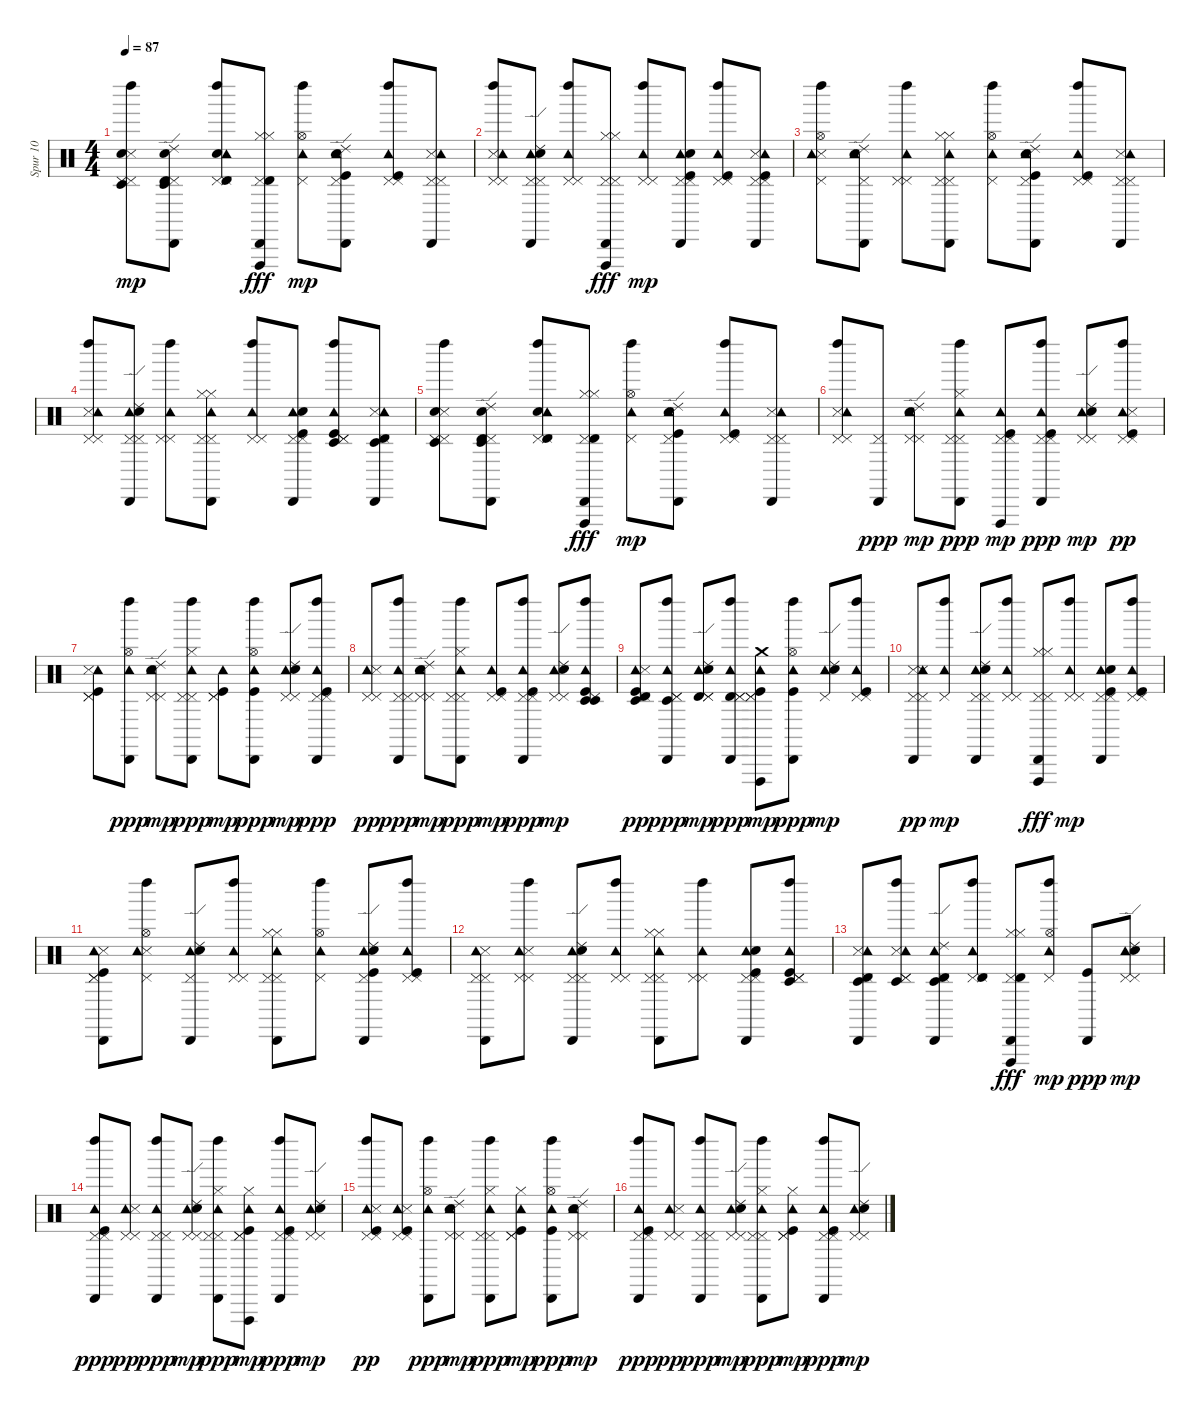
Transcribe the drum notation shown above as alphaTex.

\track ("Spur 10" "Spur 10") {instrument percussion}
\staff {score}
\articulation defaults
\ts (4 4)
\tempo 87
\clef neutral
\ks c
("Timbale low (hit)" "Snare (side stick) 3" "Pedal Hi-Hat (hit)" "Electric Snare (hit)" "Pedal Hi-Hat (hit)" "Left Maraca (hit)").8{dy mp} ("Electric Snare (hit)" "Timbale low (hit)" "Pedal Hi-Hat (hit)" "Cabasa (hit)" "Timbale high (hit)" "Ride (edge) 2").8 ("Pedal Hi-Hat (hit)" "Electric Snare (hit)" "Timbale high (hit)" "Pedal Hi-Hat (hit)" "Left Maraca (hit)" "Tambourine (hit)").8 ("Pedal Hi-Hat (hit)" "Cabasa (hit)" "Timbale high (hit)" "Hi-Hat (closed)" "Hi-Hat (closed)" "Vibraslap (hit)").8{dy fff} ("Pedal Hi-Hat (hit)" "Left Maraca (hit)" "Hi-Hat (open)" "Tambourine (hit)").8{dy mp} ("Kick (hit)" "Cabasa (hit)" "Ride (edge) 2" "Pedal Hi-Hat (hit)" "Tambourine (hit)" "Electric Snare (hit)").8 ("Pedal Hi-Hat (hit)" "Pedal Hi-Hat (hit)" "Kick (hit)" "Tambourine (hit)" "Left Maraca (hit)").8 ("Cabasa (hit)" "Pedal Hi-Hat (hit)" "Snare (side stick) 3" "Pedal Hi-Hat (hit)" "Tambourine (hit)").8 |
("Snare (side stick) 3" "Pedal Hi-Hat (hit)" "Left Maraca (hit)" "Pedal Hi-Hat (hit)" "Tambourine (hit)").8 ("Cabasa (hit)" "Pedal Hi-Hat (hit)" "Ride (edge) 2" "Pedal Hi-Hat (hit)" "Tambourine (hit)" "Electric Snare (hit)").8 ("Pedal Hi-Hat (hit)" "Left Maraca (hit)" "Pedal Hi-Hat (hit)" "Tambourine (hit)").8 ("Cabasa (hit)" "Pedal Hi-Hat (hit)" "Hi-Hat (closed)" "Hi-Hat (closed)" "Vibraslap (hit)" "Pedal Hi-Hat (hit)").8{dy fff} ("Pedal Hi-Hat (hit)" "Left Maraca (hit)" "Pedal Hi-Hat (hit)" "Tambourine (hit)").8{dy mp} ("Kick (hit)" "Cabasa (hit)" "Pedal Hi-Hat (hit)" "Pedal Hi-Hat (hit)" "Tambourine (hit)" "Electric Snare (hit)").8 ("Pedal Hi-Hat (hit)" "Kick (hit)" "Tambourine (hit)" "Left Maraca (hit)" "Pedal Hi-Hat (hit)").8 ("Pedal Hi-Hat (hit)" "Snare (side stick) 3" "Cabasa (hit)" "Tambourine (hit)" "Pedal Hi-Hat (hit)" "Kick (hit)").8 |
("Snare (side stick) 3" "Pedal Hi-Hat (hit)" "Left Maraca (hit)" "Tambourine (hit)" "Hi-Hat (open)").8 ("Cabasa (hit)" "Ride (edge) 2" "Tambourine (hit)" "Pedal Hi-Hat (hit)" "Electric Snare (hit)").8 ("Pedal Hi-Hat (hit)" "Pedal Hi-Hat (hit)" "Left Maraca (hit)" "Tambourine (hit)").8 ("Pedal Hi-Hat (hit)" "Cabasa (hit)" "Hi-Hat (closed)" "Hi-Hat (closed)" "Pedal Hi-Hat (hit)" "Tambourine (hit)").8 ("Pedal Hi-Hat (hit)" "Left Maraca (hit)" "Hi-Hat (open)" "Tambourine (hit)").8 ("Kick (hit)" "Cabasa (hit)" "Ride (edge) 2" "Pedal Hi-Hat (hit)" "Tambourine (hit)" "Electric Snare (hit)").8 ("Pedal Hi-Hat (hit)" "Pedal Hi-Hat (hit)" "Kick (hit)" "Tambourine (hit)" "Left Maraca (hit)").8 ("Cabasa (hit)" "Pedal Hi-Hat (hit)" "Snare (side stick) 3" "Pedal Hi-Hat (hit)" "Tambourine (hit)").8 |
("Snare (side stick) 3" "Pedal Hi-Hat (hit)" "Left Maraca (hit)" "Pedal Hi-Hat (hit)" "Tambourine (hit)").8 ("Cabasa (hit)" "Pedal Hi-Hat (hit)" "Ride (edge) 2" "Pedal Hi-Hat (hit)" "Tambourine (hit)" "Electric Snare (hit)").8 ("Pedal Hi-Hat (hit)" "Left Maraca (hit)" "Pedal Hi-Hat (hit)" "Tambourine (hit)").8 ("Cabasa (hit)" "Pedal Hi-Hat (hit)" "Hi-Hat (closed)" "Hi-Hat (closed)" "Pedal Hi-Hat (hit)" "Tambourine (hit)").8 ("Pedal Hi-Hat (hit)" "Left Maraca (hit)" "Pedal Hi-Hat (hit)" "Tambourine (hit)").8 ("Kick (hit)" "Cabasa (hit)" "Pedal Hi-Hat (hit)" "Pedal Hi-Hat (hit)" "Tambourine (hit)" "Electric Snare (hit)").8 ("Pedal Hi-Hat (hit)" "Timbale low (hit)" "Kick (hit)" "Tambourine (hit)" "Left Maraca (hit)" "Pedal Hi-Hat (hit)").8 ("Timbale low (hit)" "Pedal Hi-Hat (hit)" "Snare (side stick) 3" "Cabasa (hit)" "Timbale high (hit)" "Tambourine (hit)").8 |
("Timbale low (hit)" "Snare (side stick) 3" "Pedal Hi-Hat (hit)" "Electric Snare (hit)" "Pedal Hi-Hat (hit)" "Left Maraca (hit)").8 ("Electric Snare (hit)" "Timbale low (hit)" "Pedal Hi-Hat (hit)" "Cabasa (hit)" "Timbale high (hit)" "Ride (edge) 2").8 ("Pedal Hi-Hat (hit)" "Electric Snare (hit)" "Timbale high (hit)" "Pedal Hi-Hat (hit)" "Left Maraca (hit)" "Tambourine (hit)").8 ("Pedal Hi-Hat (hit)" "Cabasa (hit)" "Timbale high (hit)" "Hi-Hat (closed)" "Hi-Hat (closed)" "Vibraslap (hit)").8{dy fff} ("Pedal Hi-Hat (hit)" "Left Maraca (hit)" "Hi-Hat (open)" "Tambourine (hit)").8{dy mp} ("Kick (hit)" "Cabasa (hit)" "Ride (edge) 2" "Pedal Hi-Hat (hit)" "Tambourine (hit)" "Electric Snare (hit)").8 ("Pedal Hi-Hat (hit)" "Pedal Hi-Hat (hit)" "Kick (hit)" "Tambourine (hit)" "Left Maraca (hit)").8 ("Cabasa (hit)" "Pedal Hi-Hat (hit)" "Snare (side stick) 3" "Pedal Hi-Hat (hit)" "Tambourine (hit)").8 |
("Snare (side stick) 3" "Pedal Hi-Hat (hit)" "Left Maraca (hit)" "Pedal Hi-Hat (hit)" "Tambourine (hit)").8 ("Cabasa (hit)" "Pedal Hi-Hat (hit)").8{dy ppp} ("Ride (edge) 2" "Pedal Hi-Hat (hit)" "Tambourine (hit)" "Electric Snare (hit)" "Pedal Hi-Hat (hit)").8{dy mp} ("Left Maraca (hit)" "Pedal Hi-Hat (hit)" "Tambourine (hit)" "Cabasa (hit)" "Pedal Hi-Hat (hit)" "Hi-Hat (closed)").8{dy ppp} ("Vibraslap (hit)" "Pedal Hi-Hat (hit)" "Tambourine (hit)" "Kick (hit)" "Pedal Hi-Hat (hit)").8{dy mp} ("Left Maraca (hit)" "Pedal Hi-Hat (hit)" "Tambourine (hit)" "Kick (hit)" "Cabasa (hit)" "Pedal Hi-Hat (hit)").8{dy ppp} ("Pedal Hi-Hat (hit)" "Tambourine (hit)" "Electric Snare (hit)" "Ride (edge) 2" "Pedal Hi-Hat (hit)").8{dy mp} ("Kick (hit)" "Tambourine (hit)" "Left Maraca (hit)" "Pedal Hi-Hat (hit)" "Pedal Hi-Hat (hit)" "Snare (side stick) 3").8{dy pp} |
("Tambourine (hit)" "Pedal Hi-Hat (hit)" "Kick (hit)" "Snare (side stick) 3" "Pedal Hi-Hat (hit)").8 ("Left Maraca (hit)" "Tambourine (hit)" "Hi-Hat (open)" "Cabasa (hit)").8{dy ppp} ("Ride (edge) 2" "Tambourine (hit)" "Pedal Hi-Hat (hit)" "Electric Snare (hit)" "Pedal Hi-Hat (hit)").8{dy mp} ("Pedal Hi-Hat (hit)" "Left Maraca (hit)" "Tambourine (hit)" "Pedal Hi-Hat (hit)" "Cabasa (hit)" "Hi-Hat (closed)").8{dy ppp} ("Pedal Hi-Hat (hit)" "Tambourine (hit)" "Kick (hit)" "Pedal Hi-Hat (hit)").8{dy mp} ("Left Maraca (hit)" "Hi-Hat (open)" "Tambourine (hit)" "Kick (hit)" "Cabasa (hit)").8{dy ppp} ("Ride (edge) 2" "Pedal Hi-Hat (hit)" "Tambourine (hit)" "Electric Snare (hit)" "Pedal Hi-Hat (hit)").8{dy mp} ("Pedal Hi-Hat (hit)" "Kick (hit)" "Tambourine (hit)" "Left Maraca (hit)" "Cabasa (hit)" "Pedal Hi-Hat (hit)").8{dy ppp} |
("Pedal Hi-Hat (hit)" "Tambourine (hit)" "Snare (side stick) 3" "Pedal Hi-Hat (hit)").8{dy pp} ("Left Maraca (hit)" "Pedal Hi-Hat (hit)" "Tambourine (hit)" "Cabasa (hit)" "Pedal Hi-Hat (hit)").8{dy ppp} ("Ride (edge) 2" "Pedal Hi-Hat (hit)" "Tambourine (hit)" "Electric Snare (hit)" "Pedal Hi-Hat (hit)").8{dy mp} ("Left Maraca (hit)" "Pedal Hi-Hat (hit)" "Tambourine (hit)" "Cabasa (hit)" "Pedal Hi-Hat (hit)" "Hi-Hat (closed)").8{dy ppp} ("Pedal Hi-Hat (hit)" "Tambourine (hit)" "Kick (hit)" "Pedal Hi-Hat (hit)").8{dy mp} ("Left Maraca (hit)" "Pedal Hi-Hat (hit)" "Tambourine (hit)" "Kick (hit)" "Cabasa (hit)" "Pedal Hi-Hat (hit)").8{dy ppp} ("Pedal Hi-Hat (hit)" "Tambourine (hit)" "Electric Snare (hit)" "Ride (edge) 2" "Pedal Hi-Hat (hit)").8{dy mp} ("Timbale low (hit)" "Kick (hit)" "Tambourine (hit)" "Left Maraca (hit)" "Pedal Hi-Hat (hit)" "Timbale low (hit)").8 |
("Timbale high (hit)" "Tambourine (hit)" "Pedal Hi-Hat (hit)" "Kick (hit)" "Timbale low (hit)" "Snare (side stick) 3").8{dy pp} ("Pedal Hi-Hat (hit)" "Left Maraca (hit)" "Tambourine (hit)" "Timbale low (hit)" "Pedal Hi-Hat (hit)" "Cabasa (hit)").8{dy ppp} ("Timbale high (hit)" "Ride (edge) 2" "Tambourine (hit)" "Pedal Hi-Hat (hit)" "Electric Snare (hit)" "Pedal Hi-Hat (hit)").8{dy mp} ("Timbale high (hit)" "Pedal Hi-Hat (hit)" "Left Maraca (hit)" "Tambourine (hit)" "Pedal Hi-Hat (hit)" "Cabasa (hit)").8{dy ppp} ("Vibraslap (hit)" "Pedal Hi-Hat (hit)" "Tambourine (hit)" "Kick (hit)" "Crash medium (hit)" "Pedal Hi-Hat (hit)").8{dy mp} ("Left Maraca (hit)" "Hi-Hat (open)" "Tambourine (hit)" "Kick (hit)" "Cabasa (hit)").8{dy ppp} ("Ride (edge) 2" "Pedal Hi-Hat (hit)" "Tambourine (hit)" "Electric Snare (hit)").8{dy mp} ("Pedal Hi-Hat (hit)" "Pedal Hi-Hat (hit)" "Kick (hit)" "Tambourine (hit)" "Left Maraca (hit)").8 |
("Cabasa (hit)" "Pedal Hi-Hat (hit)" "Snare (side stick) 3" "Pedal Hi-Hat (hit)" "Tambourine (hit)" "Snare (side stick) 3").8{dy pp} ("Left Maraca (hit)" "Pedal Hi-Hat (hit)" "Tambourine (hit)").8{dy mp} ("Cabasa (hit)" "Pedal Hi-Hat (hit)" "Ride (edge) 2" "Pedal Hi-Hat (hit)" "Tambourine (hit)" "Electric Snare (hit)").8 ("Pedal Hi-Hat (hit)" "Left Maraca (hit)" "Pedal Hi-Hat (hit)" "Tambourine (hit)").8 ("Cabasa (hit)" "Pedal Hi-Hat (hit)" "Hi-Hat (closed)" "Hi-Hat (closed)" "Vibraslap (hit)" "Pedal Hi-Hat (hit)").8{dy fff} ("Pedal Hi-Hat (hit)" "Left Maraca (hit)" "Pedal Hi-Hat (hit)" "Tambourine (hit)").8{dy mp} ("Kick (hit)" "Cabasa (hit)" "Pedal Hi-Hat (hit)" "Pedal Hi-Hat (hit)" "Tambourine (hit)" "Electric Snare (hit)").8 ("Pedal Hi-Hat (hit)" "Kick (hit)" "Tambourine (hit)" "Left Maraca (hit)" "Pedal Hi-Hat (hit)").8 |
("Pedal Hi-Hat (hit)" "Snare (side stick) 3" "Cabasa (hit)" "Tambourine (hit)" "Pedal Hi-Hat (hit)" "Kick (hit)").8 ("Snare (side stick) 3" "Pedal Hi-Hat (hit)" "Left Maraca (hit)" "Tambourine (hit)" "Hi-Hat (open)").8 ("Cabasa (hit)" "Ride (edge) 2" "Tambourine (hit)" "Pedal Hi-Hat (hit)" "Electric Snare (hit)").8 ("Pedal Hi-Hat (hit)" "Pedal Hi-Hat (hit)" "Left Maraca (hit)" "Tambourine (hit)").8 ("Pedal Hi-Hat (hit)" "Cabasa (hit)" "Hi-Hat (closed)" "Hi-Hat (closed)" "Pedal Hi-Hat (hit)" "Tambourine (hit)").8 ("Pedal Hi-Hat (hit)" "Left Maraca (hit)" "Hi-Hat (open)" "Tambourine (hit)").8 ("Kick (hit)" "Cabasa (hit)" "Ride (edge) 2" "Pedal Hi-Hat (hit)" "Tambourine (hit)" "Electric Snare (hit)").8 ("Pedal Hi-Hat (hit)" "Pedal Hi-Hat (hit)" "Kick (hit)" "Tambourine (hit)" "Left Maraca (hit)").8 |
("Cabasa (hit)" "Pedal Hi-Hat (hit)" "Snare (side stick) 3" "Pedal Hi-Hat (hit)" "Tambourine (hit)").8 ("Snare (side stick) 3" "Pedal Hi-Hat (hit)" "Left Maraca (hit)" "Pedal Hi-Hat (hit)" "Tambourine (hit)").8 ("Cabasa (hit)" "Pedal Hi-Hat (hit)" "Ride (edge) 2" "Pedal Hi-Hat (hit)" "Tambourine (hit)" "Electric Snare (hit)").8 ("Pedal Hi-Hat (hit)" "Left Maraca (hit)" "Pedal Hi-Hat (hit)" "Tambourine (hit)").8 ("Cabasa (hit)" "Pedal Hi-Hat (hit)" "Hi-Hat (closed)" "Hi-Hat (closed)" "Pedal Hi-Hat (hit)" "Tambourine (hit)").8 ("Pedal Hi-Hat (hit)" "Left Maraca (hit)" "Pedal Hi-Hat (hit)" "Tambourine (hit)").8 ("Kick (hit)" "Cabasa (hit)" "Pedal Hi-Hat (hit)" "Pedal Hi-Hat (hit)" "Tambourine (hit)" "Electric Snare (hit)").8 ("Pedal Hi-Hat (hit)" "Timbale low (hit)" "Kick (hit)" "Tambourine (hit)" "Left Maraca (hit)" "Pedal Hi-Hat (hit)").8 |
("Timbale low (hit)" "Pedal Hi-Hat (hit)" "Snare (side stick) 3" "Cabasa (hit)" "Timbale high (hit)" "Tambourine (hit)").8 ("Timbale low (hit)" "Snare (side stick) 3" "Pedal Hi-Hat (hit)" "Pedal Hi-Hat (hit)" "Left Maraca (hit)" "Tambourine (hit)").8 ("Timbale low (hit)" "Pedal Hi-Hat (hit)" "Cabasa (hit)" "Timbale high (hit)" "Ride (edge) 2" "Tambourine (hit)").8 ("Pedal Hi-Hat (hit)" "Timbale high (hit)" "Pedal Hi-Hat (hit)" "Left Maraca (hit)" "Tambourine (hit)").8 ("Pedal Hi-Hat (hit)" "Cabasa (hit)" "Timbale high (hit)" "Hi-Hat (closed)" "Hi-Hat (closed)" "Vibraslap (hit)").8{dy fff} ("Pedal Hi-Hat (hit)" "Left Maraca (hit)" "Hi-Hat (open)" "Tambourine (hit)").8{dy mp} ("Kick (hit)" "Cabasa (hit)").8{dy ppp} ("Ride (edge) 2" "Pedal Hi-Hat (hit)" "Tambourine (hit)" "Electric Snare (hit)" "Pedal Hi-Hat (hit)").8{dy mp} |
("Pedal Hi-Hat (hit)" "Kick (hit)" "Tambourine (hit)" "Left Maraca (hit)" "Cabasa (hit)" "Pedal Hi-Hat (hit)").8{dy ppp} ("Pedal Hi-Hat (hit)" "Tambourine (hit)" "Snare (side stick) 3" "Pedal Hi-Hat (hit)").8{dy pp} ("Left Maraca (hit)" "Pedal Hi-Hat (hit)" "Tambourine (hit)" "Cabasa (hit)" "Pedal Hi-Hat (hit)").8{dy ppp} ("Ride (edge) 2" "Pedal Hi-Hat (hit)" "Tambourine (hit)" "Electric Snare (hit)" "Pedal Hi-Hat (hit)").8{dy mp} ("Left Maraca (hit)" "Pedal Hi-Hat (hit)" "Tambourine (hit)" "Cabasa (hit)" "Pedal Hi-Hat (hit)" "Hi-Hat (closed)").8{dy ppp} ("Hi-Hat (closed)" "Vibraslap (hit)" "Pedal Hi-Hat (hit)" "Tambourine (hit)" "Kick (hit)" "Pedal Hi-Hat (hit)").8{dy mp} ("Left Maraca (hit)" "Pedal Hi-Hat (hit)" "Tambourine (hit)" "Kick (hit)" "Cabasa (hit)" "Pedal Hi-Hat (hit)").8{dy ppp} ("Pedal Hi-Hat (hit)" "Tambourine (hit)" "Electric Snare (hit)" "Ride (edge) 2" "Pedal Hi-Hat (hit)").8{dy mp} |
("Kick (hit)" "Tambourine (hit)" "Left Maraca (hit)" "Pedal Hi-Hat (hit)" "Pedal Hi-Hat (hit)" "Snare (side stick) 3").8{dy pp} ("Tambourine (hit)" "Pedal Hi-Hat (hit)" "Kick (hit)" "Snare (side stick) 3" "Pedal Hi-Hat (hit)").8 ("Left Maraca (hit)" "Tambourine (hit)" "Hi-Hat (open)" "Cabasa (hit)").8{dy ppp} ("Ride (edge) 2" "Tambourine (hit)" "Pedal Hi-Hat (hit)" "Electric Snare (hit)" "Pedal Hi-Hat (hit)").8{dy mp} ("Pedal Hi-Hat (hit)" "Left Maraca (hit)" "Tambourine (hit)" "Pedal Hi-Hat (hit)" "Cabasa (hit)" "Hi-Hat (closed)").8{dy ppp} ("Hi-Hat (closed)" "Pedal Hi-Hat (hit)" "Tambourine (hit)" "Kick (hit)" "Pedal Hi-Hat (hit)").8{dy mp} ("Left Maraca (hit)" "Hi-Hat (open)" "Tambourine (hit)" "Kick (hit)" "Cabasa (hit)").8{dy ppp} ("Ride (edge) 2" "Pedal Hi-Hat (hit)" "Tambourine (hit)" "Electric Snare (hit)" "Pedal Hi-Hat (hit)").8{dy mp} |
("Pedal Hi-Hat (hit)" "Kick (hit)" "Tambourine (hit)" "Left Maraca (hit)" "Cabasa (hit)" "Pedal Hi-Hat (hit)").8{dy ppp} ("Pedal Hi-Hat (hit)" "Tambourine (hit)" "Snare (side stick) 3" "Pedal Hi-Hat (hit)").8{dy pp} ("Left Maraca (hit)" "Pedal Hi-Hat (hit)" "Tambourine (hit)" "Cabasa (hit)" "Pedal Hi-Hat (hit)").8{dy ppp} ("Ride (edge) 2" "Pedal Hi-Hat (hit)" "Tambourine (hit)" "Electric Snare (hit)" "Pedal Hi-Hat (hit)").8{dy mp} ("Left Maraca (hit)" "Pedal Hi-Hat (hit)" "Tambourine (hit)" "Cabasa (hit)" "Pedal Hi-Hat (hit)" "Hi-Hat (closed)").8{dy ppp} ("Hi-Hat (closed)" "Pedal Hi-Hat (hit)" "Tambourine (hit)" "Kick (hit)" "Pedal Hi-Hat (hit)").8{dy mp} ("Left Maraca (hit)" "Pedal Hi-Hat (hit)" "Tambourine (hit)" "Kick (hit)" "Cabasa (hit)" "Pedal Hi-Hat (hit)").8{dy ppp} ("Pedal Hi-Hat (hit)" "Tambourine (hit)" "Electric Snare (hit)" "Ride (edge) 2" "Pedal Hi-Hat (hit)").8{dy mp}
